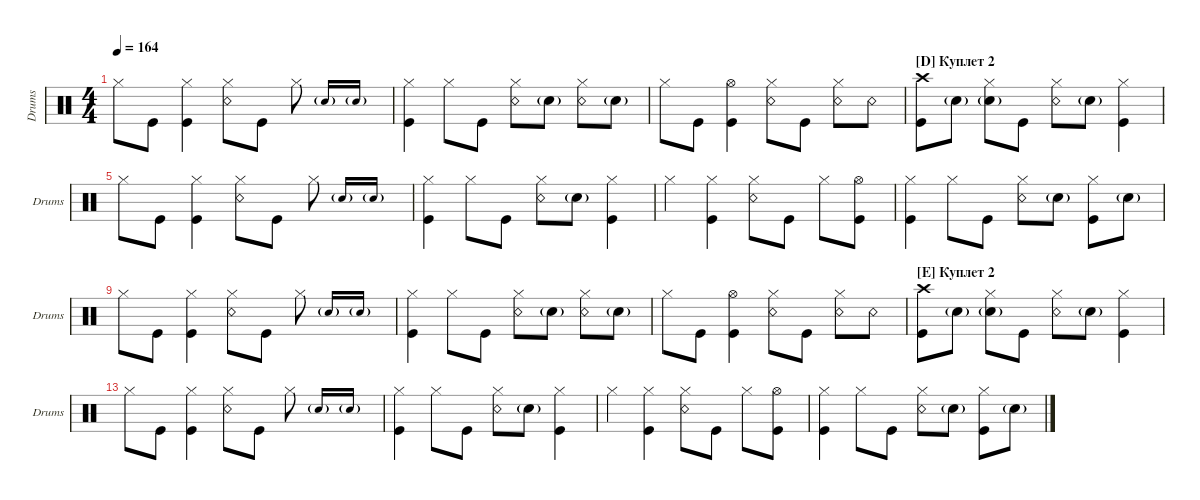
\defaultSystemsLayout 4
\hideDynamics
\bracketExtendMode groupsimilarinstruments
\singleTrackTrackNamePolicy allsystems
\multiTrackTrackNamePolicy allsystems
\otherSystemsTrackNameOrientation horizontal
\defaultBarNumberDisplay FirstOfSystem
\track ("Drumkit" "Drums") {instrument percussion}
\staff {score}
\articulation defaults
\ts (4 4)
\tempo 164
\clef neutral
\ks c "Hi-Hat (closed)".8{dy f} "Kick (hit)".8
("Kick (hit)" "Hi-Hat (closed)").4 ("Snare (rim shot)" "Hi-Hat (closed)").8 "Kick (hit)".8 "Hi-Hat (closed)".8 "Snare (hit) 2"{g}.16{gr onbeat} "Snare (hit) 2"{g}.16{gr onbeat} |
("Hi-Hat (closed)" "Kick (hit)").4 "Hi-Hat (closed)".8 "Kick (hit)".8 ("Hi-Hat (closed)" "Snare (rim shot)").8 "Snare (hit) 2"{g}.8 ("Hi-Hat (closed)" "Snare (rim shot)").8 "Snare (hit) 2"{g}.8 |
"Hi-Hat (closed)".8 "Kick (hit)".8 ("Kick (hit)" "Hi-Hat (open)").4 ("Snare (rim shot)" "Hi-Hat (closed)").8 "Kick (hit)".8 ("Snare (rim shot)" "Hi-Hat (closed)").8 "Snare (rim shot)".8 |
\section ("D" "Куплет 2")
("Crash high (hit)" "Kick (hit)").8 "Snare (hit) 2"{g}.8 ("Hi-Hat (closed)" "Snare (hit) 2"{g}).8 "Kick (hit)".8 ("Hi-Hat (closed)" "Snare (rim shot)").8 "Snare (hit) 2"{g}.8 ("Hi-Hat (closed)" "Kick (hit)").4 |
"Hi-Hat (closed)".8 "Kick (hit)".8 ("Kick (hit)" "Hi-Hat (closed)").4 ("Snare (rim shot)" "Hi-Hat (closed)").8 "Kick (hit)".8 "Hi-Hat (closed)".8 "Snare (hit) 2"{g}.16{gr onbeat} "Snare (hit) 2"{g}.16{gr onbeat} |
("Kick (hit)" "Hi-Hat (closed)").4 "Hi-Hat (closed)".8 "Kick (hit)".8 ("Hi-Hat (closed)" "Snare (rim shot)").8 "Snare (hit) 2"{g}.8 ("Hi-Hat (closed)" "Kick (hit)").4 |
"Hi-Hat (closed)".4 ("Kick (hit)" "Hi-Hat (closed)").4 ("Snare (rim shot)" "Hi-Hat (closed)").8 "Kick (hit)".8 "Hi-Hat (closed)".8 ("Kick (hit)" "Hi-Hat (open)").8 |
("Kick (hit)" "Hi-Hat (closed)").4 "Hi-Hat (closed)".8 "Kick (hit)".8 ("Hi-Hat (closed)" "Snare (rim shot)").8 "Snare (hit) 2"{g}.8 ("Hi-Hat (closed)" "Kick (hit)").8 "Snare (hit) 2"{g}.8 |
"Hi-Hat (closed)".8 "Kick (hit)".8 ("Kick (hit)" "Hi-Hat (closed)").4 ("Snare (rim shot)" "Hi-Hat (closed)").8 "Kick (hit)".8 "Hi-Hat (closed)".8 "Snare (hit) 2"{g}.16{gr onbeat} "Snare (hit) 2"{g}.16{gr onbeat} |
("Hi-Hat (closed)" "Kick (hit)").4 "Hi-Hat (closed)".8 "Kick (hit)".8 ("Hi-Hat (closed)" "Snare (rim shot)").8 "Snare (hit) 2"{g}.8 ("Hi-Hat (closed)" "Snare (rim shot)").8 "Snare (hit) 2"{g}.8 |
"Hi-Hat (closed)".8 "Kick (hit)".8 ("Kick (hit)" "Hi-Hat (open)").4 ("Snare (rim shot)" "Hi-Hat (closed)").8 "Kick (hit)".8 ("Snare (rim shot)" "Hi-Hat (closed)").8 "Snare (rim shot)".8 |
\section ("E" "Куплет 2")
("Crash high (hit)" "Kick (hit)").8 "Snare (hit) 2"{g}.8 ("Hi-Hat (closed)" "Snare (hit) 2"{g}).8 "Kick (hit)".8 ("Hi-Hat (closed)" "Snare (rim shot)").8 "Snare (hit) 2"{g}.8 ("Hi-Hat (closed)" "Kick (hit)").4 |
"Hi-Hat (closed)".8 "Kick (hit)".8 ("Kick (hit)" "Hi-Hat (closed)").4 ("Snare (rim shot)" "Hi-Hat (closed)").8 "Kick (hit)".8 "Hi-Hat (closed)".8 "Snare (hit) 2"{g}.16{gr onbeat} "Snare (hit) 2"{g}.16{gr onbeat} |
("Kick (hit)" "Hi-Hat (closed)").4 "Hi-Hat (closed)".8 "Kick (hit)".8 ("Hi-Hat (closed)" "Snare (rim shot)").8 "Snare (hit) 2"{g}.8 ("Hi-Hat (closed)" "Kick (hit)").4 |
"Hi-Hat (closed)".4 ("Kick (hit)" "Hi-Hat (closed)").4 ("Snare (rim shot)" "Hi-Hat (closed)").8 "Kick (hit)".8 "Hi-Hat (closed)".8 ("Kick (hit)" "Hi-Hat (open)").8 |
("Kick (hit)" "Hi-Hat (closed)").4 "Hi-Hat (closed)".8 "Kick (hit)".8 ("Hi-Hat (closed)" "Snare (rim shot)").8 "Snare (hit) 2"{g}.8 ("Hi-Hat (closed)" "Kick (hit)").8 "Snare (hit) 2"{g}.8
